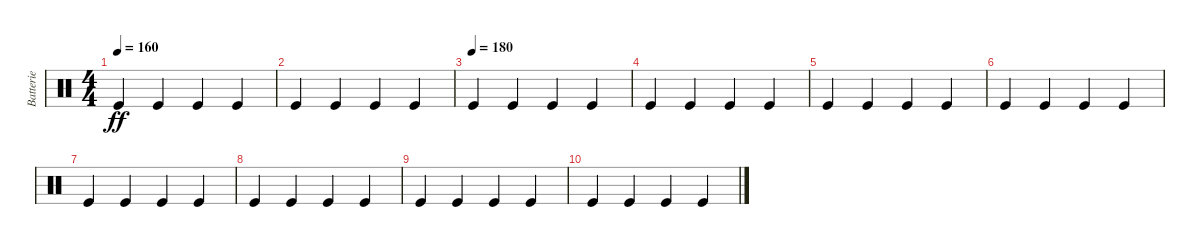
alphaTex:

\track ("Batterie" "Batterie") {instrument percussion}
\staff {score}
\articulation defaults
\ts (4 4)
\tempo 160
\clef neutral
\ks c "Kick (hit)".4{dy ff} "Kick (hit)".4 "Kick (hit)".4 "Kick (hit)".4
|
"Kick (hit)".4 "Kick (hit)".4 "Kick (hit)".4 "Kick (hit)".4 |
\tempo (180)
"Kick (hit)".4 "Kick (hit)".4 "Kick (hit)".4 "Kick (hit)".4 |
"Kick (hit)".4 "Kick (hit)".4 "Kick (hit)".4 "Kick (hit)".4 |
"Kick (hit)".4 "Kick (hit)".4 "Kick (hit)".4 "Kick (hit)".4 |
"Kick (hit)".4 "Kick (hit)".4 "Kick (hit)".4 "Kick (hit)".4 |
"Kick (hit)".4 "Kick (hit)".4 "Kick (hit)".4 "Kick (hit)".4 |
"Kick (hit)".4 "Kick (hit)".4 "Kick (hit)".4 "Kick (hit)".4 |
"Kick (hit)".4 "Kick (hit)".4 "Kick (hit)".4 "Kick (hit)".4 |
"Kick (hit)".4 "Kick (hit)".4 "Kick (hit)".4 "Kick (hit)".4
